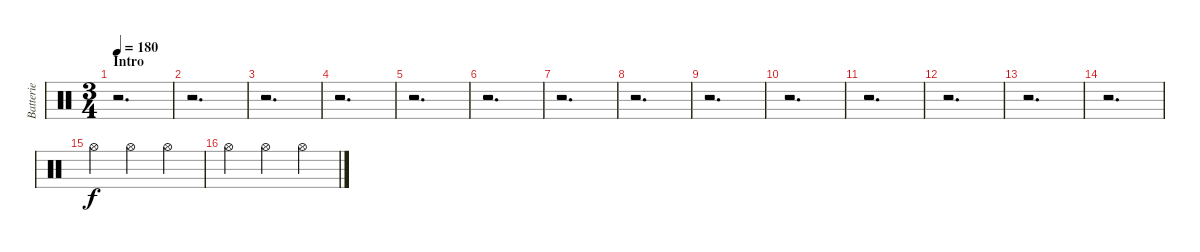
\track ("Batterie" "Batterie") {instrument percussion}
\staff {score}
\articulation defaults
\ts (3 4)
\section ("" "Intro")
\tempo 180
\clef neutral
\ks c
r.2{d dy f} |
r.2{d} |
r.2{d} |
r.2{d} |
r.2{d} |
r.2{d} |
r.2{d} |
r.2{d} |
r.2{d} |
r.2{d} |
r.2{d} |
r.2{d} |
r.2{d} |
r.2{d} |
"Hi-Hat (open)".4 "Hi-Hat (open)".4 "Hi-Hat (open)".4 |
"Hi-Hat (open)".4 "Hi-Hat (open)".4 "Hi-Hat (open)".4
